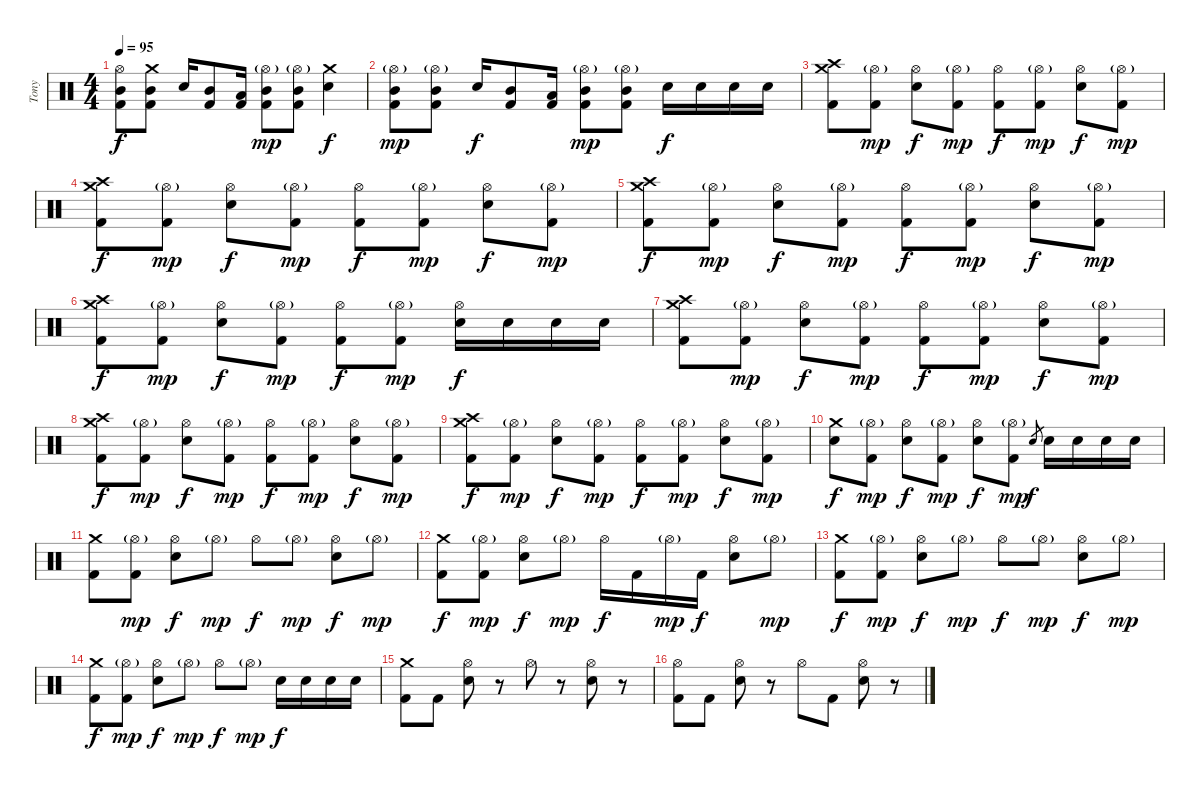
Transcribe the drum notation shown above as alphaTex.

\track ("Tony" "Tony") {instrument percussion}
\staff {score}
\articulation defaults
\ts (4 4)
\tempo 95
\clef neutral
\ks c
("Hi-Hat (open)" "Mid Tom (hit)" "Kick (hit) 2").8{dy f} ("Crash medium (hit)" "Mid Tom (hit)" "Kick (hit) 2").8 "Electric Snare (hit)".16 ("Mid Tom (hit)" "Kick (hit) 2").8 ("Low Tom (hit)" "Kick (hit) 2").16 ("Hi-Hat (open)"{g} "Mid Tom (hit)" "Kick (hit) 2").8{dy mp} ("Hi-Hat (open)"{g} "Mid Tom (hit)" "Kick (hit) 2").8 ("Crash medium (hit)" "Electric Snare (hit)").4{dy f} |
("Hi-Hat (open)"{g} "Mid Tom (hit)" "Kick (hit) 2").8{dy mp} ("Hi-Hat (open)"{g} "Mid Tom (hit)" "Kick (hit) 2").8 "Electric Snare (hit)".16{dy f} ("Mid Tom (hit)" "Kick (hit) 2").8 ("Low Tom (hit)" "Kick (hit) 2").16 ("Hi-Hat (open)"{g} "Mid Tom (hit)" "Kick (hit) 2").8{dy mp} ("Hi-Hat (open)"{g} "Mid Tom (hit)" "Kick (hit) 2").8 "Electric Snare (hit)".16{dy f} "Electric Snare (hit)".16 "Electric Snare (hit)".16 "Electric Snare (hit)".16 |
("Crash high (hit)" "Crash medium (hit)" "Kick (hit) 2").8 ("Hi-Hat (open)"{g} "Kick (hit) 2").8{dy mp} ("Hi-Hat (open)" "Electric Snare (hit)").8{dy f} ("Hi-Hat (open)"{g} "Kick (hit) 2").8{dy mp} ("Hi-Hat (open)" "Kick (hit) 2").8{dy f} ("Hi-Hat (open)"{g} "Kick (hit) 2").8{dy mp} ("Hi-Hat (open)" "Electric Snare (hit)").8{dy f} ("Hi-Hat (open)"{g} "Kick (hit) 2").8{dy mp} |
("Crash high (hit)" "Crash medium (hit)" "Kick (hit) 2").8{dy f} ("Hi-Hat (open)"{g} "Kick (hit) 2").8{dy mp} ("Hi-Hat (open)" "Electric Snare (hit)").8{dy f} ("Hi-Hat (open)"{g} "Kick (hit) 2").8{dy mp} ("Hi-Hat (open)" "Kick (hit) 2").8{dy f} ("Hi-Hat (open)"{g} "Kick (hit) 2").8{dy mp} ("Hi-Hat (open)" "Electric Snare (hit)").8{dy f} ("Hi-Hat (open)"{g} "Kick (hit) 2").8{dy mp} |
("Crash high (hit)" "Crash medium (hit)" "Kick (hit) 2").8{dy f} ("Hi-Hat (open)"{g} "Kick (hit) 2").8{dy mp} ("Hi-Hat (open)" "Electric Snare (hit)").8{dy f} ("Hi-Hat (open)"{g} "Kick (hit) 2").8{dy mp} ("Hi-Hat (open)" "Kick (hit) 2").8{dy f} ("Hi-Hat (open)"{g} "Kick (hit) 2").8{dy mp} ("Hi-Hat (open)" "Electric Snare (hit)").8{dy f} ("Hi-Hat (open)"{g} "Kick (hit) 2").8{dy mp} |
("Crash high (hit)" "Crash medium (hit)" "Kick (hit) 2").8{dy f} ("Hi-Hat (open)"{g} "Kick (hit) 2").8{dy mp} ("Hi-Hat (open)" "Electric Snare (hit)").8{dy f} ("Hi-Hat (open)"{g} "Kick (hit) 2").8{dy mp} ("Hi-Hat (open)" "Kick (hit) 2").8{dy f} ("Hi-Hat (open)"{g} "Kick (hit) 2").8{dy mp} ("Hi-Hat (open)" "Electric Snare (hit)").16{dy f} "Electric Snare (hit)".16 "Electric Snare (hit)".16 "Electric Snare (hit)".16 |
("Crash high (hit)" "Crash medium (hit)" "Kick (hit) 2").8 ("Hi-Hat (open)"{g} "Kick (hit) 2").8{dy mp} ("Hi-Hat (open)" "Electric Snare (hit)").8{dy f} ("Hi-Hat (open)"{g} "Kick (hit) 2").8{dy mp} ("Hi-Hat (open)" "Kick (hit) 2").8{dy f} ("Hi-Hat (open)"{g} "Kick (hit) 2").8{dy mp} ("Hi-Hat (open)" "Electric Snare (hit)").8{dy f} ("Hi-Hat (open)"{g} "Kick (hit) 2").8{dy mp} |
("Crash high (hit)" "Crash medium (hit)" "Kick (hit) 2").8{dy f} ("Hi-Hat (open)"{g} "Kick (hit) 2").8{dy mp} ("Hi-Hat (open)" "Electric Snare (hit)").8{dy f} ("Hi-Hat (open)"{g} "Kick (hit) 2").8{dy mp} ("Hi-Hat (open)" "Kick (hit) 2").8{dy f} ("Hi-Hat (open)"{g} "Kick (hit) 2").8{dy mp} ("Hi-Hat (open)" "Electric Snare (hit)").8{dy f} ("Hi-Hat (open)"{g} "Kick (hit) 2").8{dy mp} |
("Crash high (hit)" "Crash medium (hit)" "Kick (hit) 2").8{dy f} ("Hi-Hat (open)"{g} "Kick (hit) 2").8{dy mp} ("Hi-Hat (open)" "Electric Snare (hit)").8{dy f} ("Hi-Hat (open)"{g} "Kick (hit) 2").8{dy mp} ("Hi-Hat (open)" "Kick (hit) 2").8{dy f} ("Hi-Hat (open)"{g} "Kick (hit) 2").8{dy mp} ("Hi-Hat (open)" "Electric Snare (hit)").8{dy f} ("Hi-Hat (open)"{g} "Kick (hit) 2").8{dy mp} |
("Crash medium (hit)" "Electric Snare (hit)").8{dy f} ("Hi-Hat (open)"{g} "Kick (hit) 2").8{dy mp} ("Hi-Hat (open)" "Electric Snare (hit)").8{dy f} ("Hi-Hat (open)"{g} "Kick (hit) 2").8{dy mp} ("Hi-Hat (open)" "Electric Snare (hit)").8{dy f} ("Hi-Hat (open)"{g} "Kick (hit) 2").8{dy mp} "Electric Snare (hit)".8{gr dy f} "Electric Snare (hit)".16 "Electric Snare (hit)".16 "Electric Snare (hit)".16 "Electric Snare (hit)".16 |
("Crash medium (hit)" "Kick (hit) 2").8 ("Hi-Hat (open)"{g} "Kick (hit) 2").8{dy mp} ("Hi-Hat (open)" "Electric Snare (hit)").8{dy f} "Hi-Hat (open)"{g}.8{dy mp} "Hi-Hat (open)".8{dy f} "Hi-Hat (open)"{g}.8{dy mp} ("Hi-Hat (open)" "Electric Snare (hit)").8{dy f} "Hi-Hat (open)"{g}.8{dy mp} |
("Crash medium (hit)" "Kick (hit) 2").8{dy f} ("Hi-Hat (open)"{g} "Kick (hit) 2").8{dy mp} ("Hi-Hat (open)" "Electric Snare (hit)").8{dy f} "Hi-Hat (open)"{g}.8{dy mp} "Hi-Hat (open)".16{dy f} "Kick (hit) 2".16 "Hi-Hat (open)"{g}.16{dy mp} "Kick (hit) 2".16{dy f} ("Hi-Hat (open)" "Electric Snare (hit)").8 "Hi-Hat (open)"{g}.8{dy mp} |
("Crash medium (hit)" "Kick (hit) 2").8{dy f} ("Hi-Hat (open)"{g} "Kick (hit) 2").8{dy mp} ("Hi-Hat (open)" "Electric Snare (hit)").8{dy f} "Hi-Hat (open)"{g}.8{dy mp} "Hi-Hat (open)".8{dy f} "Hi-Hat (open)"{g}.8{dy mp} ("Hi-Hat (open)" "Electric Snare (hit)").8{dy f} "Hi-Hat (open)"{g}.8{dy mp} |
("Crash medium (hit)" "Kick (hit) 2").8{dy f} ("Hi-Hat (open)"{g} "Kick (hit) 2").8{dy mp} ("Hi-Hat (open)" "Electric Snare (hit)").8{dy f} "Hi-Hat (open)"{g}.8{dy mp} "Hi-Hat (open)".8{dy f} "Hi-Hat (open)"{g}.8{dy mp} "Electric Snare (hit)".16{dy f} "Electric Snare (hit)".16 "Electric Snare (hit)".16 "Electric Snare (hit)".16 |
("Crash medium (hit)" "Kick (hit) 2").8 "Kick (hit) 2".8 ("Hi-Hat (open)" "Electric Snare (hit)").8 r.8 "Hi-Hat (open)".8 r.8 ("Hi-Hat (open)" "Electric Snare (hit)").8 r.8 |
("Hi-Hat (open)" "Kick (hit) 2").8 "Kick (hit) 2".8 ("Hi-Hat (open)" "Electric Snare (hit)").8 r.8 "Hi-Hat (open)".8 "Kick (hit) 2".8 ("Hi-Hat (open)" "Electric Snare (hit)").8 r.8
